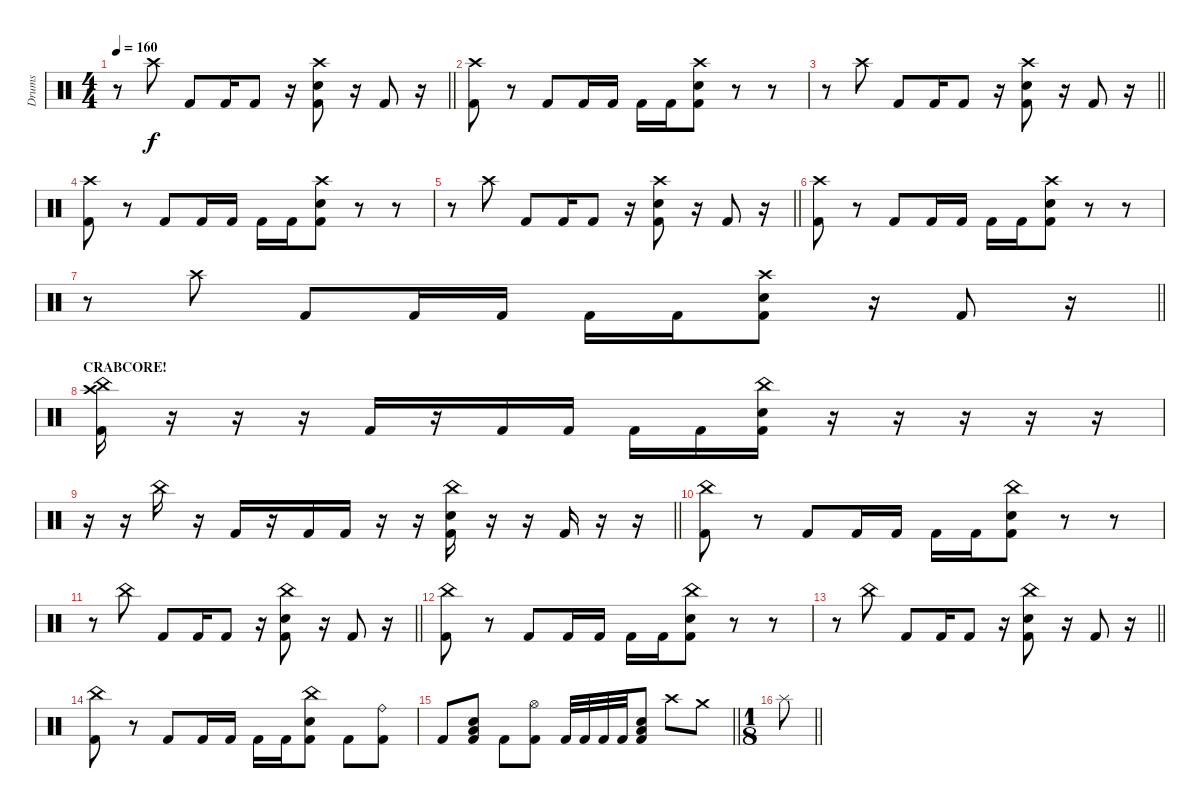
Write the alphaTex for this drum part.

\track ("Drums" "Drums") {instrument percussion}
\staff {score}
\articulation defaults
\ts (4 4)
\tempo 160
\clef neutral
\barLineRight lightlight
\ks c
r.8{dy f} "Crash high (hit)".8 "Kick (hit) 2".8 "Kick (hit) 2".16 "Kick (hit) 2".8 r.16 ("Crash high (hit)" "Electric Snare (hit)" "Kick (hit) 2").8 r.16 "Kick (hit) 2".8 r.16 |
("Crash high (hit)" "Kick (hit) 2").8 r.8 "Kick (hit) 2".8 "Kick (hit) 2".16 "Kick (hit) 2".16 "Kick (hit) 2".16 "Kick (hit) 2".16 ("Crash high (hit)" "Electric Snare (hit)" "Kick (hit) 2").8 r.8 r.8 |
\barLineRight lightlight
r.8 "Crash high (hit)".8 "Kick (hit) 2".8 "Kick (hit) 2".16 "Kick (hit) 2".8 r.16 ("Crash high (hit)" "Electric Snare (hit)" "Kick (hit) 2").8 r.16 "Kick (hit) 2".8 r.16 |
("Crash high (hit)" "Kick (hit) 2").8 r.8 "Kick (hit) 2".8 "Kick (hit) 2".16 "Kick (hit) 2".16 "Kick (hit) 2".16 "Kick (hit) 2".16 ("Crash high (hit)" "Electric Snare (hit)" "Kick (hit) 2").8 r.8 r.8 |
\barLineRight lightlight
r.8 "Crash high (hit)".8 "Kick (hit) 2".8 "Kick (hit) 2".16 "Kick (hit) 2".8 r.16 ("Crash high (hit)" "Electric Snare (hit)" "Kick (hit) 2").8 r.16 "Kick (hit) 2".8 r.16 |
("Crash high (hit)" "Kick (hit) 2").8 r.8 "Kick (hit) 2".8 "Kick (hit) 2".16 "Kick (hit) 2".16 "Kick (hit) 2".16 "Kick (hit) 2".16 ("Crash high (hit)" "Electric Snare (hit)" "Kick (hit) 2").8 r.8 r.8 |
\barLineRight lightlight
r.8 "Crash high (hit)".8 "Kick (hit) 2".8 "Kick (hit) 2".16 "Kick (hit) 2".16 "Kick (hit) 2".16 "Kick (hit) 2".16 ("Crash high (hit)" "Electric Snare (hit)" "Kick (hit) 2").8 r.16 "Kick (hit) 2".8 r.16 |
\section ("" "CRABCORE!")
("China (hit)" "Crash high (hit)" "Kick (hit) 2").16 r.16 r.16 r.16 "Kick (hit) 2".16 r.16 "Kick (hit) 2".16 "Kick (hit) 2".16 "Kick (hit) 2".16 "Kick (hit) 2".16 ("China (hit)" "Electric Snare (hit)" "Kick (hit) 2").16 r.16 r.16 r.16 r.16 r.16 |
\barLineRight lightlight
r.16 r.16 "China (hit)".16 r.16 "Kick (hit) 2".16 r.16 "Kick (hit) 2".16 "Kick (hit) 2".16 r.16 r.16 ("China (hit)" "Electric Snare (hit)" "Kick (hit) 2").16 r.16 r.16 "Kick (hit) 2".16 r.16 r.16 |
("China (hit)" "Kick (hit) 2").8 r.8 "Kick (hit) 2".8 "Kick (hit) 2".16 "Kick (hit) 2".16 "Kick (hit) 2".16 "Kick (hit) 2".16 ("China (hit)" "Electric Snare (hit)" "Kick (hit) 2").8 r.8 r.8 |
\barLineRight lightlight
r.8 "China (hit)".8 "Kick (hit) 2".8 "Kick (hit) 2".16 "Kick (hit) 2".8 r.16 ("China (hit)" "Electric Snare (hit)" "Kick (hit) 2").8 r.16 "Kick (hit) 2".8 r.16 |
("China (hit)" "Kick (hit) 2").8 r.8 "Kick (hit) 2".8 "Kick (hit) 2".16 "Kick (hit) 2".16 "Kick (hit) 2".16 "Kick (hit) 2".16 ("China (hit)" "Electric Snare (hit)" "Kick (hit) 2").8 r.8 r.8 |
\barLineRight lightlight
r.8 "China (hit)".8 "Kick (hit) 2".8 "Kick (hit) 2".16 "Kick (hit) 2".8 r.16 ("China (hit)" "Electric Snare (hit)" "Kick (hit) 2").8 r.16 "Kick (hit) 2".8 r.16 |
("China (hit)" "Kick (hit) 2").8 r.8 "Kick (hit) 2".8 "Kick (hit) 2".16 "Kick (hit) 2".16 "Kick (hit) 2".16 "Kick (hit) 2".16 ("China (hit)" "Electric Snare (hit)" "Kick (hit) 2").8 "Kick (hit) 2".8 ("Ride (bell)" "Kick (hit) 2").8 |
\barLineRight lightlight "Kick (hit) 2".8
("Low Floor Tom (hit)" "Electric Snare (hit)" "Kick (hit) 2").8 "Kick (hit) 2".8 ("Hi-Hat (open)" "Kick (hit) 2").8 "Kick (hit) 2".32 "Kick (hit) 2".32 "Kick (hit) 2".32 "Kick (hit) 2".32 ("Low Floor Tom (hit)" "Electric Snare (hit)" "Kick (hit) 2").8 "Crash high (hit)".8 "Crash medium (hit)".8 |
\ts (1 8)
\barLineRight lightlight "Splash (hit)".8
